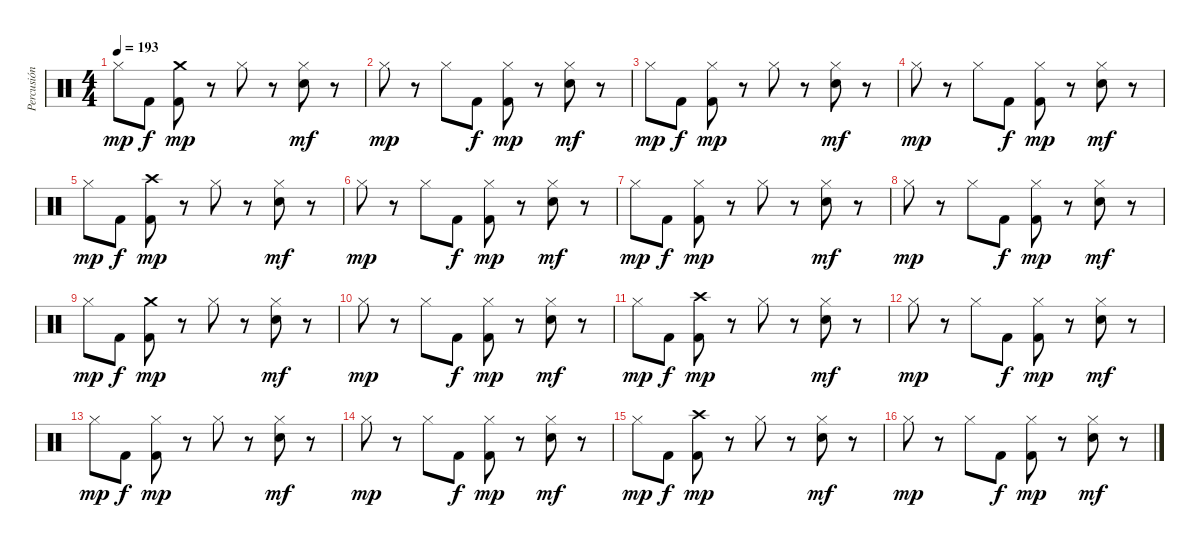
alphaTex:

\track ("Percusión" "Percusión") {instrument percussion}
\staff {score}
\articulation defaults
\ts (4 4)
\tempo 193
\clef neutral
\ks c "Hi-Hat (closed)".8{dy mp} "Kick (hit) 2".8{dy f}
("Crash medium (hit)" "Kick (hit) 2").8{dy mp} r.8 "Hi-Hat (closed)".8 r.8 ("Hi-Hat (closed)" "Electric Snare (hit)").8{dy mf} r.8 |
"Hi-Hat (closed)".8{dy mp} r.8 "Hi-Hat (closed)".8 "Kick (hit) 2".8{dy f} ("Hi-Hat (closed)" "Kick (hit) 2").8{dy mp} r.8 ("Hi-Hat (closed)" "Electric Snare (hit)").8{dy mf} r.8 |
"Hi-Hat (closed)".8{dy mp} "Kick (hit) 2".8{dy f} ("Hi-Hat (closed)" "Kick (hit) 2").8{dy mp} r.8 "Hi-Hat (closed)".8 r.8 ("Hi-Hat (closed)" "Electric Snare (hit)").8{dy mf} r.8 |
"Hi-Hat (closed)".8{dy mp} r.8 "Hi-Hat (closed)".8 "Kick (hit) 2".8{dy f} ("Hi-Hat (closed)" "Kick (hit) 2").8{dy mp} r.8 ("Hi-Hat (closed)" "Electric Snare (hit)").8{dy mf} r.8 |
"Hi-Hat (closed)".8{dy mp} "Kick (hit) 2".8{dy f} ("Crash high (hit)" "Kick (hit) 2").8{dy mp} r.8 "Hi-Hat (closed)".8 r.8 ("Hi-Hat (closed)" "Electric Snare (hit)").8{dy mf} r.8 |
"Hi-Hat (closed)".8{dy mp} r.8 "Hi-Hat (closed)".8 "Kick (hit) 2".8{dy f} ("Hi-Hat (closed)" "Kick (hit) 2").8{dy mp} r.8 ("Hi-Hat (closed)" "Electric Snare (hit)").8{dy mf} r.8 |
"Hi-Hat (closed)".8{dy mp} "Kick (hit) 2".8{dy f} ("Hi-Hat (closed)" "Kick (hit) 2").8{dy mp} r.8 "Hi-Hat (closed)".8 r.8 ("Hi-Hat (closed)" "Electric Snare (hit)").8{dy mf} r.8 |
"Hi-Hat (closed)".8{dy mp} r.8 "Hi-Hat (closed)".8 "Kick (hit) 2".8{dy f} ("Hi-Hat (closed)" "Kick (hit) 2").8{dy mp} r.8 ("Hi-Hat (closed)" "Electric Snare (hit)").8{dy mf} r.8 |
"Hi-Hat (closed)".8{dy mp} "Kick (hit) 2".8{dy f} ("Crash medium (hit)" "Kick (hit) 2").8{dy mp} r.8 "Hi-Hat (closed)".8 r.8 ("Hi-Hat (closed)" "Electric Snare (hit)").8{dy mf} r.8 |
"Hi-Hat (closed)".8{dy mp} r.8 "Hi-Hat (closed)".8 "Kick (hit) 2".8{dy f} ("Hi-Hat (closed)" "Kick (hit) 2").8{dy mp} r.8 ("Hi-Hat (closed)" "Electric Snare (hit)").8{dy mf} r.8 |
"Hi-Hat (closed)".8{dy mp} "Kick (hit) 2".8{dy f} ("Crash high (hit)" "Kick (hit) 2").8{dy mp} r.8 "Hi-Hat (closed)".8 r.8 ("Hi-Hat (closed)" "Electric Snare (hit)").8{dy mf} r.8 |
"Hi-Hat (closed)".8{dy mp} r.8 "Hi-Hat (closed)".8 "Kick (hit) 2".8{dy f} ("Hi-Hat (closed)" "Kick (hit) 2").8{dy mp} r.8 ("Hi-Hat (closed)" "Electric Snare (hit)").8{dy mf} r.8 |
"Hi-Hat (closed)".8{dy mp} "Kick (hit) 2".8{dy f} ("Hi-Hat (closed)" "Kick (hit) 2").8{dy mp} r.8 "Hi-Hat (closed)".8 r.8 ("Hi-Hat (closed)" "Electric Snare (hit)").8{dy mf} r.8 |
"Hi-Hat (closed)".8{dy mp} r.8 "Hi-Hat (closed)".8 "Kick (hit) 2".8{dy f} ("Hi-Hat (closed)" "Kick (hit) 2").8{dy mp} r.8 ("Hi-Hat (closed)" "Electric Snare (hit)").8{dy mf} r.8 |
"Hi-Hat (closed)".8{dy mp} "Kick (hit) 2".8{dy f} ("Crash high (hit)" "Kick (hit) 2").8{dy mp} r.8 "Hi-Hat (closed)".8 r.8 ("Hi-Hat (closed)" "Electric Snare (hit)").8{dy mf} r.8 |
"Hi-Hat (closed)".8{dy mp} r.8 "Hi-Hat (closed)".8 "Kick (hit) 2".8{dy f} ("Hi-Hat (closed)" "Kick (hit) 2").8{dy mp} r.8 ("Hi-Hat (closed)" "Electric Snare (hit)").8{dy mf} r.8
